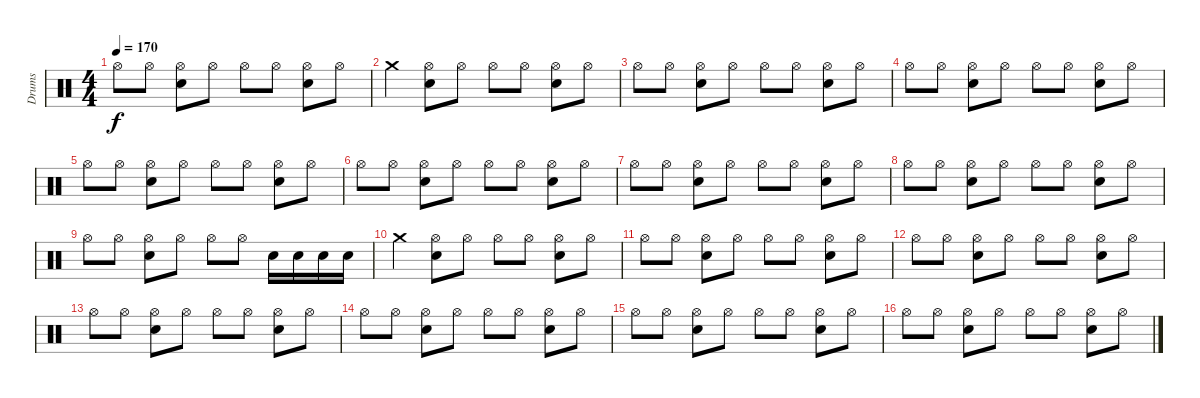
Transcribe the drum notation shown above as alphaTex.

\track ("Drums" "Drums") {instrument percussion}
\staff {score}
\articulation defaults
\ts (4 4)
\tempo 170
\clef neutral
\ks c "Hi-Hat (open)".8{dy f} "Hi-Hat (open)".8
("Electric Snare (hit)" "Hi-Hat (open)").8 "Hi-Hat (open)".8 "Hi-Hat (open)".8 "Hi-Hat (open)".8 ("Electric Snare (hit)" "Hi-Hat (open)").8 "Hi-Hat (open)".8 |
"Crash medium (hit)".4 ("Electric Snare (hit)" "Hi-Hat (open)").8 "Hi-Hat (open)".8 "Hi-Hat (open)".8 "Hi-Hat (open)".8 ("Electric Snare (hit)" "Hi-Hat (open)").8 "Hi-Hat (open)".8 |
"Hi-Hat (open)".8 "Hi-Hat (open)".8 ("Electric Snare (hit)" "Hi-Hat (open)").8 "Hi-Hat (open)".8 "Hi-Hat (open)".8 "Hi-Hat (open)".8 ("Electric Snare (hit)" "Hi-Hat (open)").8 "Hi-Hat (open)".8 |
"Hi-Hat (open)".8 "Hi-Hat (open)".8 ("Electric Snare (hit)" "Hi-Hat (open)").8 "Hi-Hat (open)".8 "Hi-Hat (open)".8 "Hi-Hat (open)".8 ("Electric Snare (hit)" "Hi-Hat (open)").8 "Hi-Hat (open)".8 |
"Hi-Hat (open)".8 "Hi-Hat (open)".8 ("Electric Snare (hit)" "Hi-Hat (open)").8 "Hi-Hat (open)".8 "Hi-Hat (open)".8 "Hi-Hat (open)".8 ("Electric Snare (hit)" "Hi-Hat (open)").8 "Hi-Hat (open)".8 |
"Hi-Hat (open)".8 "Hi-Hat (open)".8 ("Electric Snare (hit)" "Hi-Hat (open)").8 "Hi-Hat (open)".8 "Hi-Hat (open)".8 "Hi-Hat (open)".8 ("Electric Snare (hit)" "Hi-Hat (open)").8 "Hi-Hat (open)".8 |
"Hi-Hat (open)".8 "Hi-Hat (open)".8 ("Electric Snare (hit)" "Hi-Hat (open)").8 "Hi-Hat (open)".8 "Hi-Hat (open)".8 "Hi-Hat (open)".8 ("Electric Snare (hit)" "Hi-Hat (open)").8 "Hi-Hat (open)".8 |
"Hi-Hat (open)".8 "Hi-Hat (open)".8 ("Electric Snare (hit)" "Hi-Hat (open)").8 "Hi-Hat (open)".8 "Hi-Hat (open)".8 "Hi-Hat (open)".8 ("Electric Snare (hit)" "Hi-Hat (open)").8 "Hi-Hat (open)".8 |
"Hi-Hat (open)".8 "Hi-Hat (open)".8 ("Electric Snare (hit)" "Hi-Hat (open)").8 "Hi-Hat (open)".8 "Hi-Hat (open)".8 "Hi-Hat (open)".8 "Electric Snare (hit)".16 "Electric Snare (hit)".16 "Electric Snare (hit)".16 "Electric Snare (hit)".16 |
"Crash medium (hit)".4 ("Electric Snare (hit)" "Hi-Hat (open)").8 "Hi-Hat (open)".8 "Hi-Hat (open)".8 "Hi-Hat (open)".8 ("Electric Snare (hit)" "Hi-Hat (open)").8 "Hi-Hat (open)".8 |
"Hi-Hat (open)".8 "Hi-Hat (open)".8 ("Electric Snare (hit)" "Hi-Hat (open)").8 "Hi-Hat (open)".8 "Hi-Hat (open)".8 "Hi-Hat (open)".8 ("Electric Snare (hit)" "Hi-Hat (open)").8 "Hi-Hat (open)".8 |
"Hi-Hat (open)".8 "Hi-Hat (open)".8 ("Electric Snare (hit)" "Hi-Hat (open)").8 "Hi-Hat (open)".8 "Hi-Hat (open)".8 "Hi-Hat (open)".8 ("Electric Snare (hit)" "Hi-Hat (open)").8 "Hi-Hat (open)".8 |
"Hi-Hat (open)".8 "Hi-Hat (open)".8 ("Electric Snare (hit)" "Hi-Hat (open)").8 "Hi-Hat (open)".8 "Hi-Hat (open)".8 "Hi-Hat (open)".8 ("Electric Snare (hit)" "Hi-Hat (open)").8 "Hi-Hat (open)".8 |
"Hi-Hat (open)".8 "Hi-Hat (open)".8 ("Electric Snare (hit)" "Hi-Hat (open)").8 "Hi-Hat (open)".8 "Hi-Hat (open)".8 "Hi-Hat (open)".8 ("Electric Snare (hit)" "Hi-Hat (open)").8 "Hi-Hat (open)".8 |
"Hi-Hat (open)".8 "Hi-Hat (open)".8 ("Electric Snare (hit)" "Hi-Hat (open)").8 "Hi-Hat (open)".8 "Hi-Hat (open)".8 "Hi-Hat (open)".8 ("Electric Snare (hit)" "Hi-Hat (open)").8 "Hi-Hat (open)".8 |
"Hi-Hat (open)".8 "Hi-Hat (open)".8 ("Electric Snare (hit)" "Hi-Hat (open)").8 "Hi-Hat (open)".8 "Hi-Hat (open)".8 "Hi-Hat (open)".8 ("Electric Snare (hit)" "Hi-Hat (open)").8 "Hi-Hat (open)".8
